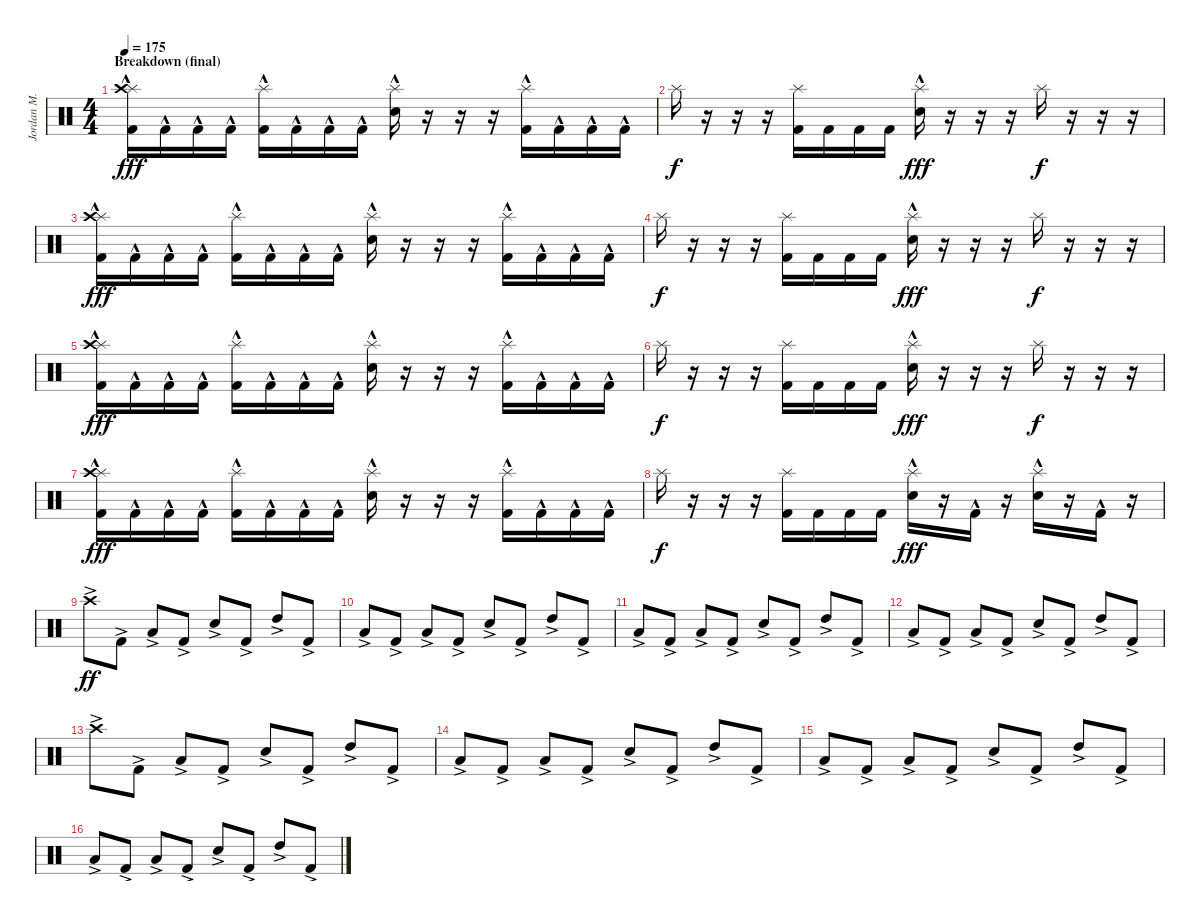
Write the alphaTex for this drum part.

\track ("Jordan M." "Jordan M.") {instrument percussion}
\staff {score}
\articulation defaults
\ts (4 4)
\section ("" "Breakdown (final)")
\tempo 175
\clef neutral
\ks c
("Splash (hit)" "Crash high (hit)" "Kick (hit) 2"{hac}).16{dy fff} "Kick (hit) 2"{hac}.16 "Kick (hit) 2"{hac}.16 "Kick (hit) 2"{hac}.16 ("Splash (hit)" "Kick (hit) 2"{hac}).16 "Kick (hit) 2"{hac}.16 "Kick (hit) 2"{hac}.16 "Kick (hit) 2"{hac}.16 ("Splash (hit)" "Electric Snare (hit)"{hac}).16 r.16 r.16 r.16 ("Splash (hit)" "Kick (hit) 2"{hac}).16 "Kick (hit) 2"{hac}.16 "Kick (hit) 2"{hac}.16 "Kick (hit) 2"{hac}.16 |
"Splash (hit)".16{dy f} r.16 r.16 r.16 ("Splash (hit)" "Kick (hit) 2").16 "Kick (hit) 2".16 "Kick (hit) 2".16 "Kick (hit) 2".16 ("Splash (hit)" "Electric Snare (hit)"{hac}).16{dy fff} r.16 r.16 r.16 "Splash (hit)".16{dy f} r.16 r.16 r.16 |
("Splash (hit)" "Crash high (hit)" "Kick (hit) 2"{hac}).16{dy fff} "Kick (hit) 2"{hac}.16 "Kick (hit) 2"{hac}.16 "Kick (hit) 2"{hac}.16 ("Splash (hit)" "Kick (hit) 2"{hac}).16 "Kick (hit) 2"{hac}.16 "Kick (hit) 2"{hac}.16 "Kick (hit) 2"{hac}.16 ("Splash (hit)" "Electric Snare (hit)"{hac}).16 r.16 r.16 r.16 ("Splash (hit)" "Kick (hit) 2"{hac}).16 "Kick (hit) 2"{hac}.16 "Kick (hit) 2"{hac}.16 "Kick (hit) 2"{hac}.16 |
"Splash (hit)".16{dy f} r.16 r.16 r.16 ("Splash (hit)" "Kick (hit) 2").16 "Kick (hit) 2".16 "Kick (hit) 2".16 "Kick (hit) 2".16 ("Splash (hit)" "Electric Snare (hit)"{hac}).16{dy fff} r.16 r.16 r.16 "Splash (hit)".16{dy f} r.16 r.16 r.16 |
("Splash (hit)" "Crash high (hit)" "Kick (hit) 2"{hac}).16{dy fff} "Kick (hit) 2"{hac}.16 "Kick (hit) 2"{hac}.16 "Kick (hit) 2"{hac}.16 ("Splash (hit)" "Kick (hit) 2"{hac}).16 "Kick (hit) 2"{hac}.16 "Kick (hit) 2"{hac}.16 "Kick (hit) 2"{hac}.16 ("Splash (hit)" "Electric Snare (hit)"{hac}).16 r.16 r.16 r.16 ("Splash (hit)" "Kick (hit) 2"{hac}).16 "Kick (hit) 2"{hac}.16 "Kick (hit) 2"{hac}.16 "Kick (hit) 2"{hac}.16 |
"Splash (hit)".16{dy f} r.16 r.16 r.16 ("Splash (hit)" "Kick (hit) 2").16 "Kick (hit) 2".16 "Kick (hit) 2".16 "Kick (hit) 2".16 ("Splash (hit)" "Electric Snare (hit)"{hac}).16{dy fff} r.16 r.16 r.16 "Splash (hit)".16{dy f} r.16 r.16 r.16 |
("Splash (hit)" "Crash high (hit)" "Kick (hit) 2"{hac}).16{dy fff} "Kick (hit) 2"{hac}.16 "Kick (hit) 2"{hac}.16 "Kick (hit) 2"{hac}.16 ("Splash (hit)" "Kick (hit) 2"{hac}).16 "Kick (hit) 2"{hac}.16 "Kick (hit) 2"{hac}.16 "Kick (hit) 2"{hac}.16 ("Splash (hit)" "Electric Snare (hit)"{hac}).16 r.16 r.16 r.16 ("Splash (hit)" "Kick (hit) 2"{hac}).16 "Kick (hit) 2"{hac}.16 "Kick (hit) 2"{hac}.16 "Kick (hit) 2"{hac}.16 |
"Splash (hit)".16{dy f} r.16 r.16 r.16 ("Splash (hit)" "Kick (hit) 2").16 "Kick (hit) 2".16 "Kick (hit) 2".16 "Kick (hit) 2".16 ("Splash (hit)" "Electric Snare (hit)"{hac}).16{dy fff} r.16 "Kick (hit) 2"{hac}.16 r.16 ("Splash (hit)" "Electric Snare (hit)"{hac}).16 r.16 "Kick (hit) 2"{hac}.16 r.16 |
"Crash high (hit)"{ac}.8{dy ff} "Kick (hit) 2"{ac}.8 "Low Tom (hit)"{ac}.8 "Kick (hit) 2"{ac}.8 "Electric Snare (hit)"{ac}.8 "Kick (hit) 2"{ac}.8 "High Tom (hit)"{ac}.8 "Kick (hit) 2"{ac}.8 |
"Low Tom (hit)"{ac}.8 "Kick (hit) 2"{ac}.8 "Low Tom (hit)"{ac}.8 "Kick (hit) 2"{ac}.8 "Electric Snare (hit)"{ac}.8 "Kick (hit) 2"{ac}.8 "High Tom (hit)"{ac}.8 "Kick (hit) 2"{ac}.8 |
"Low Tom (hit)"{ac}.8 "Kick (hit) 2"{ac}.8 "Low Tom (hit)"{ac}.8 "Kick (hit) 2"{ac}.8 "Electric Snare (hit)"{ac}.8 "Kick (hit) 2"{ac}.8 "High Tom (hit)"{ac}.8 "Kick (hit) 2"{ac}.8 |
"Low Tom (hit)"{ac}.8 "Kick (hit) 2"{ac}.8 "Low Tom (hit)"{ac}.8 "Kick (hit) 2"{ac}.8 "Electric Snare (hit)"{ac}.8 "Kick (hit) 2"{ac}.8 "High Tom (hit)"{ac}.8 "Kick (hit) 2"{ac}.8 |
"Crash high (hit)"{ac}.8 "Kick (hit) 2"{ac}.8 "Low Tom (hit)"{ac}.8 "Kick (hit) 2"{ac}.8 "Electric Snare (hit)"{ac}.8 "Kick (hit) 2"{ac}.8 "High Tom (hit)"{ac}.8 "Kick (hit) 2"{ac}.8 |
"Low Tom (hit)"{ac}.8 "Kick (hit) 2"{ac}.8 "Low Tom (hit)"{ac}.8 "Kick (hit) 2"{ac}.8 "Electric Snare (hit)"{ac}.8 "Kick (hit) 2"{ac}.8 "High Tom (hit)"{ac}.8 "Kick (hit) 2"{ac}.8 |
"Low Tom (hit)"{ac}.8 "Kick (hit) 2"{ac}.8 "Low Tom (hit)"{ac}.8 "Kick (hit) 2"{ac}.8 "Electric Snare (hit)"{ac}.8 "Kick (hit) 2"{ac}.8 "High Tom (hit)"{ac}.8 "Kick (hit) 2"{ac}.8 |
"Low Tom (hit)"{ac}.8 "Kick (hit) 2"{ac}.8 "Low Tom (hit)"{ac}.8 "Kick (hit) 2"{ac}.8 "Electric Snare (hit)"{ac}.8 "Kick (hit) 2"{ac}.8 "High Tom (hit)"{ac}.8 "Kick (hit) 2"{ac}.8
